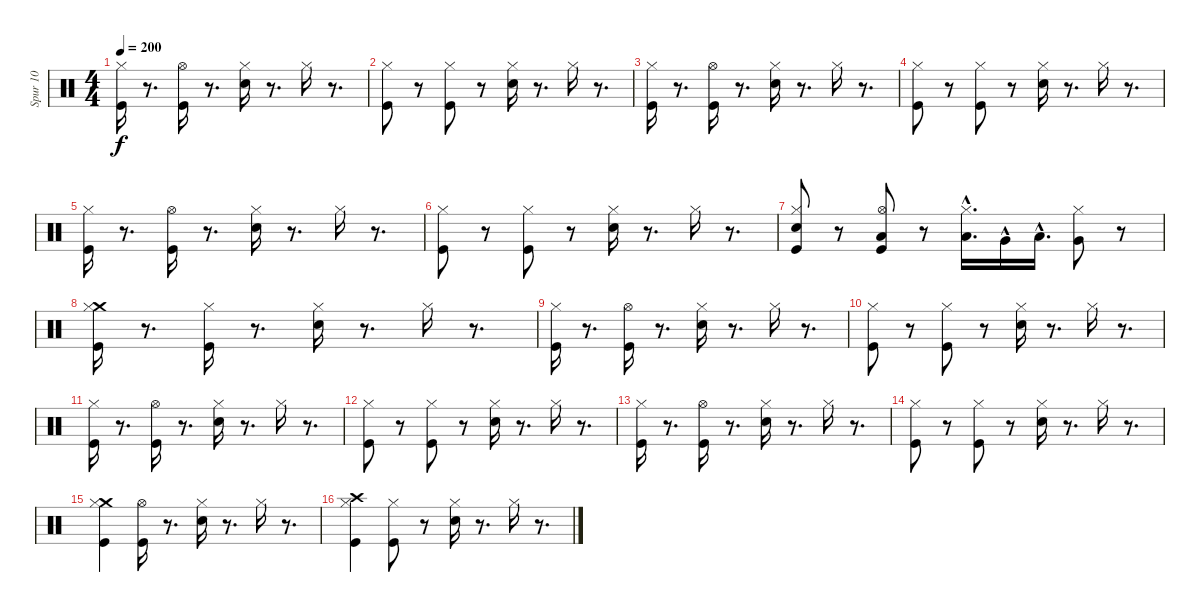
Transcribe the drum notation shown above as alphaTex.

\track ("Spur 10" "Spur 10") {instrument percussion}
\staff {score}
\articulation defaults
\ts (4 4)
\tempo 200
\clef neutral
\ks c
("Kick (hit)" "Hi-Hat (closed)").16{dy f} r.8{d} ("Kick (hit)" "Hi-Hat (open)").16 r.8{d} ("Snare (hit) 2" "Hi-Hat (closed)").16 r.8{d} "Hi-Hat (closed)".16 r.8{d} |
("Hi-Hat (closed)" "Kick (hit)").8 r.8 ("Kick (hit)" "Hi-Hat (closed)").8 r.8 ("Snare (hit) 2" "Hi-Hat (closed)").16 r.8{d} "Hi-Hat (closed)".16 r.8{d} |
("Kick (hit)" "Hi-Hat (closed)").16 r.8{d} ("Kick (hit)" "Hi-Hat (open)").16 r.8{d} ("Snare (hit) 2" "Hi-Hat (closed)").16 r.8{d} "Hi-Hat (closed)".16 r.8{d} |
("Hi-Hat (closed)" "Kick (hit)").8 r.8 ("Kick (hit)" "Hi-Hat (closed)").8 r.8 ("Snare (hit) 2" "Hi-Hat (closed)").16 r.8{d} "Hi-Hat (closed)".16 r.8{d} |
("Kick (hit)" "Hi-Hat (closed)").16 r.8{d} ("Kick (hit)" "Hi-Hat (open)").16 r.8{d} ("Snare (hit) 2" "Hi-Hat (closed)").16 r.8{d} "Hi-Hat (closed)".16 r.8{d} |
("Hi-Hat (closed)" "Kick (hit)").8 r.8 ("Kick (hit)" "Hi-Hat (closed)").8 r.8 ("Snare (hit) 2" "Hi-Hat (closed)").16 r.8{d} "Hi-Hat (closed)".16 r.8{d} |
("Snare (hit) 2" "Kick (hit)" "Hi-Hat (closed)").8 r.8 ("Low Tom (hit)" "Kick (hit)" "Hi-Hat (open)").8 r.8 ("Low Tom (hit)"{hac} "Hi-Hat (closed)").16{d} "Very Low Tom (hit)"{hac}.16 "Low Tom (hit)"{hac}.16{d} ("Very Low Tom (hit)" "Hi-Hat (closed)").8 r.8 |
("Kick (hit)" "Crash medium (hit)" "Hi-Hat (closed)").16 r.8{d} ("Kick (hit)" "Hi-Hat (closed)").16 r.8{d} ("Snare (hit) 2" "Hi-Hat (closed)").16 r.8{d} "Hi-Hat (closed)".16 r.8{d} |
("Kick (hit)" "Hi-Hat (closed)").16 r.8{d} ("Kick (hit)" "Hi-Hat (open)").16 r.8{d} ("Snare (hit) 2" "Hi-Hat (closed)").16 r.8{d} "Hi-Hat (closed)".16 r.8{d} |
("Hi-Hat (closed)" "Kick (hit)").8 r.8 ("Kick (hit)" "Hi-Hat (closed)").8 r.8 ("Snare (hit) 2" "Hi-Hat (closed)").16 r.8{d} "Hi-Hat (closed)".16 r.8{d} |
("Kick (hit)" "Hi-Hat (closed)").16 r.8{d} ("Kick (hit)" "Hi-Hat (open)").16 r.8{d} ("Snare (hit) 2" "Hi-Hat (closed)").16 r.8{d} "Hi-Hat (closed)".16 r.8{d} |
("Hi-Hat (closed)" "Kick (hit)").8 r.8 ("Kick (hit)" "Hi-Hat (closed)").8 r.8 ("Snare (hit) 2" "Hi-Hat (closed)").16 r.8{d} "Hi-Hat (closed)".16 r.8{d} |
("Kick (hit)" "Hi-Hat (closed)").16 r.8{d} ("Kick (hit)" "Hi-Hat (open)").16 r.8{d} ("Snare (hit) 2" "Hi-Hat (closed)").16 r.8{d} "Hi-Hat (closed)".16 r.8{d} |
("Hi-Hat (closed)" "Kick (hit)").8 r.8 ("Kick (hit)" "Hi-Hat (closed)").8 r.8 ("Snare (hit) 2" "Hi-Hat (closed)").16 r.8{d} "Hi-Hat (closed)".16 r.8{d} |
("Crash medium (hit)" "Kick (hit)" "Hi-Hat (closed)").4 ("Kick (hit)" "Hi-Hat (open)").16 r.8{d} ("Snare (hit) 2" "Hi-Hat (closed)").16 r.8{d} "Hi-Hat (closed)".16 r.8{d} |
("Crash high (hit)" "Hi-Hat (closed)" "Kick (hit)").4 ("Kick (hit)" "Hi-Hat (closed)").8 r.8 ("Snare (hit) 2" "Hi-Hat (closed)").16 r.8{d} "Hi-Hat (closed)".16 r.8{d}
